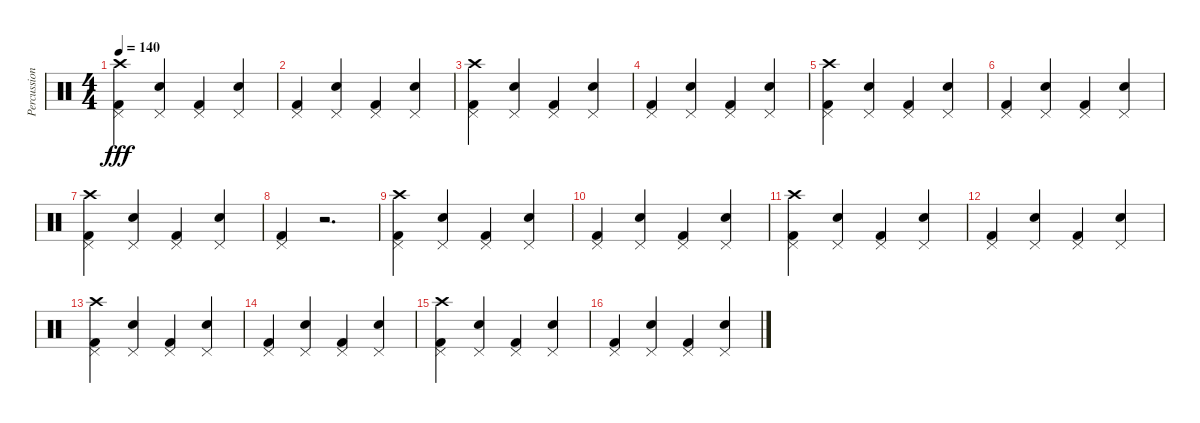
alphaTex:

\track ("Percussions" "Percussion") {instrument percussion}
\staff {score}
\articulation defaults
\ts (4 4)
\tempo 140
\clef neutral
\ks c
("Crash high (hit)" "Pedal Hi-Hat (hit)" "Kick (hit) 2").4{dy fff} ("Pedal Hi-Hat (hit)" "Snare (hit) 2").4 ("Pedal Hi-Hat (hit)" "Kick (hit) 2").4 ("Pedal Hi-Hat (hit)" "Snare (hit) 2").4 |
("Pedal Hi-Hat (hit)" "Kick (hit) 2").4 ("Pedal Hi-Hat (hit)" "Snare (hit) 2").4 ("Pedal Hi-Hat (hit)" "Kick (hit) 2").4 ("Pedal Hi-Hat (hit)" "Snare (hit) 2").4 |
("Crash high (hit)" "Pedal Hi-Hat (hit)" "Kick (hit) 2").4 ("Pedal Hi-Hat (hit)" "Snare (hit) 2").4 ("Pedal Hi-Hat (hit)" "Kick (hit) 2").4 ("Pedal Hi-Hat (hit)" "Snare (hit) 2").4 |
("Pedal Hi-Hat (hit)" "Kick (hit) 2").4 ("Pedal Hi-Hat (hit)" "Snare (hit) 2").4 ("Pedal Hi-Hat (hit)" "Kick (hit) 2").4 ("Pedal Hi-Hat (hit)" "Snare (hit) 2").4 |
("Crash high (hit)" "Pedal Hi-Hat (hit)" "Kick (hit) 2").4 ("Pedal Hi-Hat (hit)" "Snare (hit) 2").4 ("Pedal Hi-Hat (hit)" "Kick (hit) 2").4 ("Pedal Hi-Hat (hit)" "Snare (hit) 2").4 |
("Pedal Hi-Hat (hit)" "Kick (hit) 2").4 ("Pedal Hi-Hat (hit)" "Snare (hit) 2").4 ("Pedal Hi-Hat (hit)" "Kick (hit) 2").4 ("Pedal Hi-Hat (hit)" "Snare (hit) 2").4 |
("Crash high (hit)" "Pedal Hi-Hat (hit)" "Kick (hit) 2").4 ("Pedal Hi-Hat (hit)" "Snare (hit) 2").4 ("Pedal Hi-Hat (hit)" "Kick (hit) 2").4 ("Pedal Hi-Hat (hit)" "Snare (hit) 2").4 |
("Pedal Hi-Hat (hit)" "Kick (hit) 2").4 r.2{d} |
("Crash high (hit)" "Pedal Hi-Hat (hit)" "Kick (hit) 2").4 ("Pedal Hi-Hat (hit)" "Snare (hit) 2").4 ("Pedal Hi-Hat (hit)" "Kick (hit) 2").4 ("Pedal Hi-Hat (hit)" "Snare (hit) 2").4 |
("Pedal Hi-Hat (hit)" "Kick (hit) 2").4 ("Pedal Hi-Hat (hit)" "Snare (hit) 2").4 ("Pedal Hi-Hat (hit)" "Kick (hit) 2").4 ("Pedal Hi-Hat (hit)" "Snare (hit) 2").4 |
("Crash high (hit)" "Pedal Hi-Hat (hit)" "Kick (hit) 2").4 ("Pedal Hi-Hat (hit)" "Snare (hit) 2").4 ("Pedal Hi-Hat (hit)" "Kick (hit) 2").4 ("Pedal Hi-Hat (hit)" "Snare (hit) 2").4 |
("Pedal Hi-Hat (hit)" "Kick (hit) 2").4 ("Pedal Hi-Hat (hit)" "Snare (hit) 2").4 ("Pedal Hi-Hat (hit)" "Kick (hit) 2").4 ("Pedal Hi-Hat (hit)" "Snare (hit) 2").4 |
("Crash high (hit)" "Pedal Hi-Hat (hit)" "Kick (hit) 2").4 ("Pedal Hi-Hat (hit)" "Snare (hit) 2").4 ("Pedal Hi-Hat (hit)" "Kick (hit) 2").4 ("Pedal Hi-Hat (hit)" "Snare (hit) 2").4 |
("Pedal Hi-Hat (hit)" "Kick (hit) 2").4 ("Pedal Hi-Hat (hit)" "Snare (hit) 2").4 ("Pedal Hi-Hat (hit)" "Kick (hit) 2").4 ("Pedal Hi-Hat (hit)" "Snare (hit) 2").4 |
("Crash high (hit)" "Pedal Hi-Hat (hit)" "Kick (hit) 2").4 ("Pedal Hi-Hat (hit)" "Snare (hit) 2").4 ("Pedal Hi-Hat (hit)" "Kick (hit) 2").4 ("Pedal Hi-Hat (hit)" "Snare (hit) 2").4 |
("Pedal Hi-Hat (hit)" "Kick (hit) 2").4 ("Pedal Hi-Hat (hit)" "Snare (hit) 2").4 ("Pedal Hi-Hat (hit)" "Kick (hit) 2").4 ("Pedal Hi-Hat (hit)" "Snare (hit) 2").4
